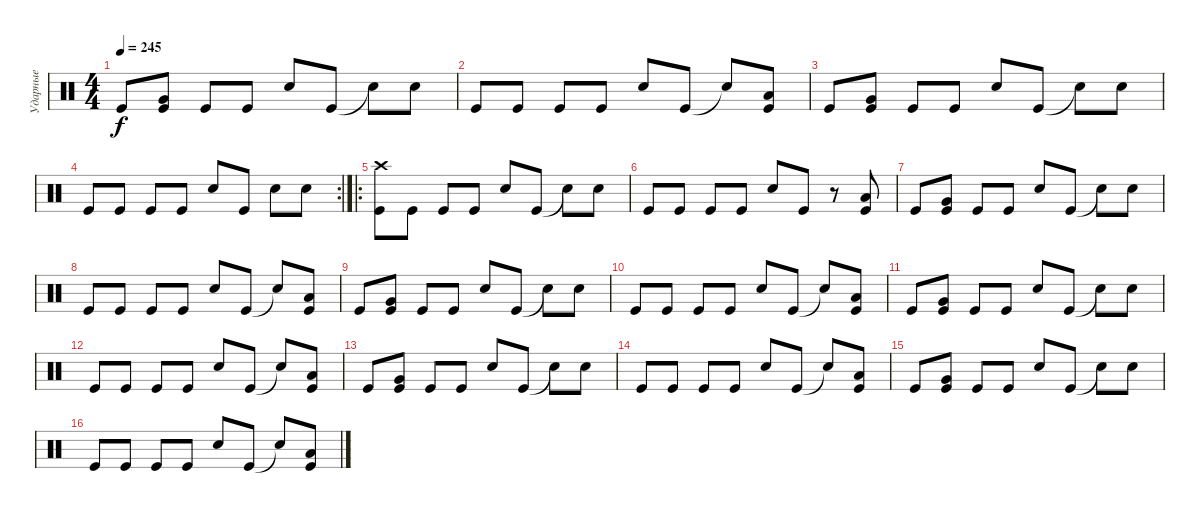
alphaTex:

\track ("Ударные" "Ударные") {instrument percussion}
\staff {score}
\articulation defaults
\ts (4 4)
\tempo 245
\clef neutral
\ks c "Kick (hit)".8{dy f}
("Kick (hit)" "Very Low Tom (hit)").8 "Kick (hit)".8 "Kick (hit)".8 "Electric Snare (hit)".8 "Kick (hit)".8 "Snare (hit)"{t}.8 "Electric Snare (hit)".8 |
"Kick (hit)".8 "Kick (hit)".8 "Kick (hit)".8 "Kick (hit)".8 "Electric Snare (hit)".8 "Kick (hit)".8 "Snare (hit)"{t}.8 ("Kick (hit)" "Low Tom (hit)").8 |
"Kick (hit)".8 ("Kick (hit)" "Very Low Tom (hit)").8 "Kick (hit)".8 "Kick (hit)".8 "Electric Snare (hit)".8 "Kick (hit)".8 "Snare (hit)"{t}.8 "Electric Snare (hit)".8 |
\rc 2 "Kick (hit)".8 "Kick (hit)".8 "Kick (hit)".8 "Kick (hit)".8 "Electric Snare (hit)".8 "Kick (hit)".8 "Electric Snare (hit)".8 "Electric Snare (hit)".8
|
\ro
("Kick (hit)" "Crash high (hit)").8 "Kick (hit)".8 "Kick (hit)".8 "Kick (hit)".8 "Electric Snare (hit)".8 "Kick (hit)".8 "Snare (hit)"{t}.8 "Electric Snare (hit)".8 |
"Kick (hit)".8 "Kick (hit)".8 "Kick (hit)".8 "Kick (hit)".8 "Electric Snare (hit)".8 "Kick (hit)".8 r.8 ("Kick (hit)" "Low Tom (hit)").8 |
"Kick (hit)".8 ("Kick (hit)" "Very Low Tom (hit)").8 "Kick (hit)".8 "Kick (hit)".8 "Electric Snare (hit)".8 "Kick (hit)".8 "Snare (hit)"{t}.8 "Electric Snare (hit)".8 |
"Kick (hit)".8 "Kick (hit)".8 "Kick (hit)".8 "Kick (hit)".8 "Electric Snare (hit)".8 "Kick (hit)".8 "Snare (hit)"{t}.8 ("Kick (hit)" "Low Tom (hit)").8 |
"Kick (hit)".8 ("Kick (hit)" "Very Low Tom (hit)").8 "Kick (hit)".8 "Kick (hit)".8 "Electric Snare (hit)".8 "Kick (hit)".8 "Snare (hit)"{t}.8 "Electric Snare (hit)".8 |
"Kick (hit)".8 "Kick (hit)".8 "Kick (hit)".8 "Kick (hit)".8 "Electric Snare (hit)".8 "Kick (hit)".8 "Snare (hit)"{t}.8 ("Kick (hit)" "Low Tom (hit)").8 |
"Kick (hit)".8 ("Kick (hit)" "Very Low Tom (hit)").8 "Kick (hit)".8 "Kick (hit)".8 "Electric Snare (hit)".8 "Kick (hit)".8 "Snare (hit)"{t}.8 "Electric Snare (hit)".8 |
"Kick (hit)".8 "Kick (hit)".8 "Kick (hit)".8 "Kick (hit)".8 "Electric Snare (hit)".8 "Kick (hit)".8 "Snare (hit)"{t}.8 ("Kick (hit)" "Low Tom (hit)").8 |
"Kick (hit)".8 ("Kick (hit)" "Very Low Tom (hit)").8 "Kick (hit)".8 "Kick (hit)".8 "Electric Snare (hit)".8 "Kick (hit)".8 "Snare (hit)"{t}.8 "Electric Snare (hit)".8 |
"Kick (hit)".8 "Kick (hit)".8 "Kick (hit)".8 "Kick (hit)".8 "Electric Snare (hit)".8 "Kick (hit)".8 "Snare (hit)"{t}.8 ("Kick (hit)" "Low Tom (hit)").8 |
"Kick (hit)".8 ("Kick (hit)" "Very Low Tom (hit)").8 "Kick (hit)".8 "Kick (hit)".8 "Electric Snare (hit)".8 "Kick (hit)".8 "Snare (hit)"{t}.8 "Electric Snare (hit)".8 |
"Kick (hit)".8 "Kick (hit)".8 "Kick (hit)".8 "Kick (hit)".8 "Electric Snare (hit)".8 "Kick (hit)".8 "Snare (hit)"{t}.8 ("Kick (hit)" "Low Tom (hit)").8
